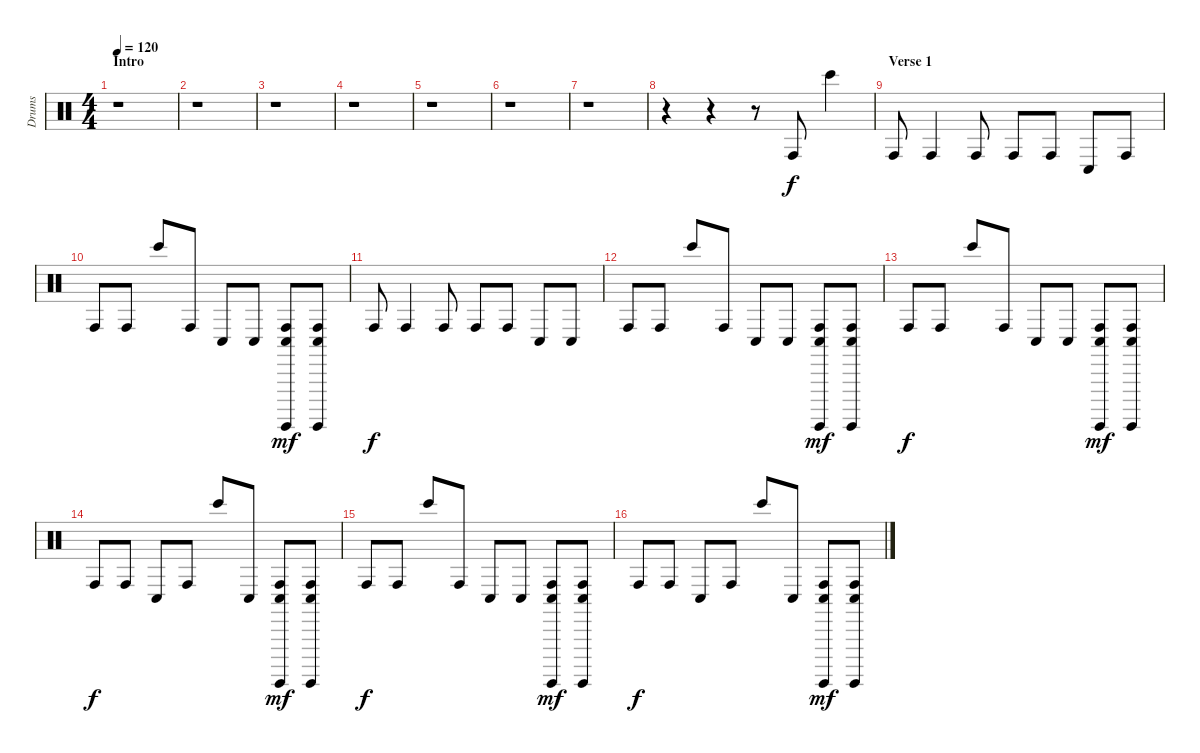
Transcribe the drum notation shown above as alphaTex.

\track ("Drums" "Drums") {instrument percussion}
\staff {score}
\articulation defaults
\ts (4 4)
\section ("" "Intro")
\tempo 120
\clef neutral
\ks c
r.1{dy f} |
r.1 |
r.1 |
r.1 |
r.1 |
r.1 |
r.1 |
r.4 r.4 r.8 "Conga high (hit)".8 "Bongo High (hit)".4 |
\section ("" "Verse 1")
"Conga high (hit)".8 "Conga high (hit)".4 "Conga high (hit)".8 "Conga high (hit)".8 "Conga high (hit)".8 "Conga low (hit)".8 "Conga high (hit)".8 |
"Conga high (hit)".8 "Conga high (hit)".8 "Bongo High (hit)".8 "Conga high (hit)".8 "Conga low (hit)".8 "Conga low (hit)".8 ("Conga high (hit)" "Conga low (hit)" "Surdo (hit)").8{dy mf} ("Conga high (hit)" "Conga low (hit)" "Surdo (hit)").8 |
"Conga high (hit)".8{dy f} "Conga high (hit)".4 "Conga high (hit)".8 "Conga high (hit)".8 "Conga high (hit)".8 "Conga low (hit)".8 "Conga low (hit)".8 |
"Conga high (hit)".8 "Conga high (hit)".8 "Bongo High (hit)".8 "Conga high (hit)".8 "Conga low (hit)".8 "Conga low (hit)".8 ("Conga high (hit)" "Conga low (hit)" "Surdo (hit)").8{dy mf} ("Conga high (hit)" "Conga low (hit)" "Surdo (hit)").8 |
"Conga high (hit)".8{dy f} "Conga high (hit)".8 "Bongo High (hit)".8 "Conga high (hit)".8 "Conga low (hit)".8 "Conga low (hit)".8 ("Conga high (hit)" "Conga low (hit)" "Surdo (hit)").8{dy mf} ("Conga high (hit)" "Conga low (hit)" "Surdo (hit)").8 |
"Conga high (hit)".8{dy f} "Conga high (hit)".8 "Conga low (hit)".8 "Conga high (hit)".8 "Bongo High (hit)".8 "Conga low (hit)".8 ("Conga high (hit)" "Conga low (hit)" "Surdo (hit)").8{dy mf} ("Conga high (hit)" "Conga low (hit)" "Surdo (hit)").8 |
"Conga high (hit)".8{dy f} "Conga high (hit)".8 "Bongo High (hit)".8 "Conga high (hit)".8 "Conga low (hit)".8 "Conga low (hit)".8 ("Conga high (hit)" "Conga low (hit)" "Surdo (hit)").8{dy mf} ("Conga high (hit)" "Conga low (hit)" "Surdo (hit)").8 |
"Conga high (hit)".8{dy f} "Conga high (hit)".8 "Conga low (hit)".8 "Conga high (hit)".8 "Bongo High (hit)".8 "Conga low (hit)".8 ("Conga high (hit)" "Conga low (hit)" "Surdo (hit)").8{dy mf} ("Conga high (hit)" "Conga low (hit)" "Surdo (hit)").8
